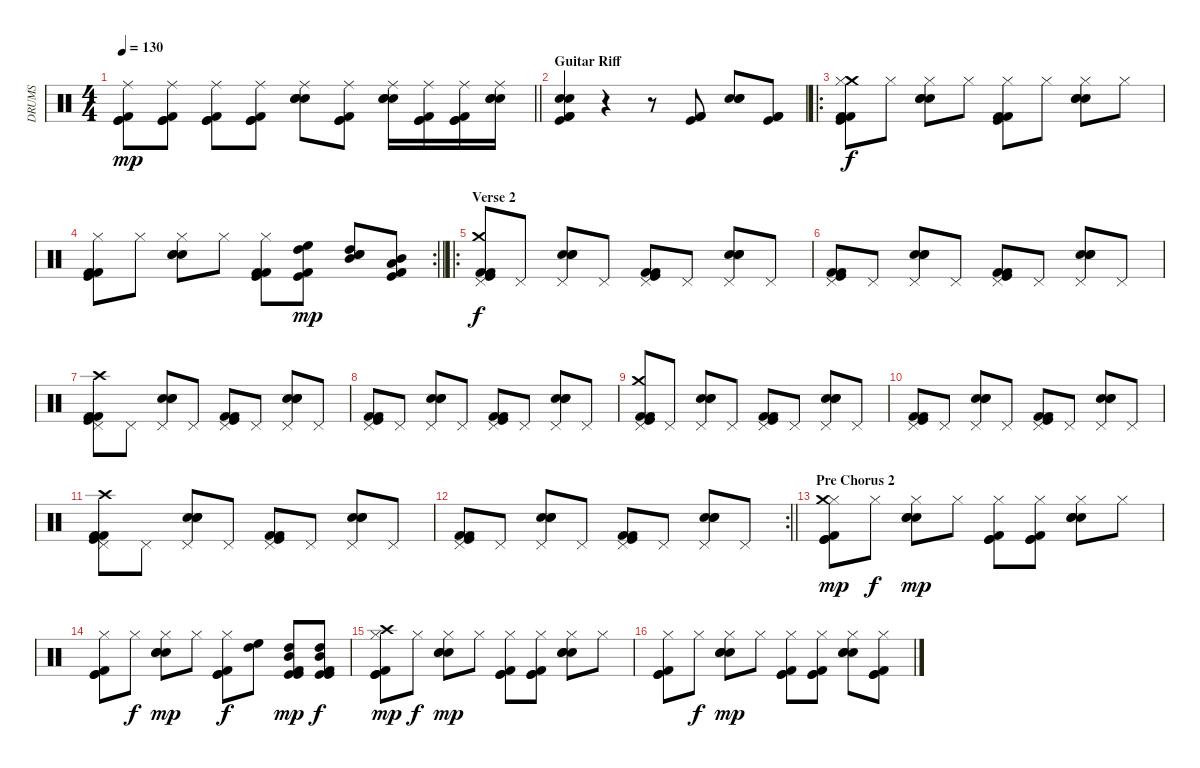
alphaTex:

\track ("DRUMS" "DRUMS") {instrument percussion}
\staff {score}
\articulation defaults
\ts (4 4)
\tempo 130
\clef neutral
\barLineRight lightlight
\ks c
("Ride (middle)" "Kick (hit) 2" "Kick (hit)" "Kick (hit)").8{dy mp} ("Ride (middle)" "Kick (hit) 2" "Kick (hit)" "Kick (hit)").8 ("Ride (middle)" "Kick (hit) 2" "Kick (hit)" "Kick (hit)").8 ("Ride (middle)" "Kick (hit) 2" "Kick (hit)" "Kick (hit)").8 ("Ride (middle)" "Electric Snare (hit)" "Snare (hit) 2" "Snare (hit) 2").8 ("Ride (middle)" "Kick (hit) 2" "Kick (hit)" "Kick (hit)").8 ("Ride (middle)" "Electric Snare (hit)" "Snare (hit) 2" "Snare (hit) 2").16 ("Ride (middle)" "Kick (hit) 2" "Kick (hit)" "Kick (hit)").16 ("Ride (middle)" "Kick (hit) 2" "Kick (hit)" "Kick (hit)").16 ("Ride (middle)" "Electric Snare (hit)" "Snare (hit) 2" "Snare (hit) 2").16 |
\section ("" "Guitar Riff")
("Kick (hit) 2" "Kick (hit)" "Snare (hit) 2" "Electric Snare (hit)" "Kick (hit) 2").4{volume 10} r.4 r.8 ("Kick (hit) 2" "Kick (hit)" "Kick (hit) 2").8 ("Snare (hit) 2" "Electric Snare (hit)" "Snare (hit) 2").8 ("Kick (hit) 2" "Kick (hit)" "Kick (hit) 2").8 |
\ro
("Crash medium (hit)" "Hi-Hat (closed)" "Kick (hit) 2" "Kick (hit)" "Kick (hit) 2").8{dy f volume 8} "Hi-Hat (closed)".8 ("Hi-Hat (closed)" "Snare (hit) 2" "Electric Snare (hit)" "Snare (hit) 2").8 "Hi-Hat (closed)".8 ("Hi-Hat (closed)" "Kick (hit) 2" "Kick (hit)" "Kick (hit) 2").8 "Hi-Hat (closed)".8 ("Hi-Hat (closed)" "Snare (hit) 2" "Electric Snare (hit)" "Snare (hit) 2").8 "Hi-Hat (closed)".8 |
\rc 2
\barLineRight lightlight
("Hi-Hat (closed)" "Kick (hit) 2" "Kick (hit)" "Kick (hit) 2").8 "Hi-Hat (closed)".8 ("Hi-Hat (closed)" "Snare (hit) 2" "Electric Snare (hit)" "Snare (hit) 2").8 "Hi-Hat (closed)".8 ("Hi-Hat (closed)" "Kick (hit) 2" "Kick (hit)" "Kick (hit) 2").8 ("Kick (hit) 2" "Kick (hit)" "High Floor Tom (hit)" "High Tom (hit)").8{dy mp volume 10} ("Snare (hit) 2" "Electric Snare (hit)" "High Tom (hit)" "Mid Tom (hit)").8 ("Kick (hit) 2" "Kick (hit)" "Mid Tom (hit)" "Low Tom (hit)").8 |
\ro
\section ("" "Verse 2")
("Crash medium (hit)" "Pedal Hi-Hat (hit)" "Kick (hit) 2" "Kick (hit)" "Kick (hit) 2").8{dy f volume 8} "Pedal Hi-Hat (hit)".8 ("Pedal Hi-Hat (hit)" "Snare (hit) 2" "Electric Snare (hit)" "Snare (hit) 2").8 "Pedal Hi-Hat (hit)".8 ("Pedal Hi-Hat (hit)" "Kick (hit) 2" "Kick (hit)" "Kick (hit) 2").8 "Pedal Hi-Hat (hit)".8 ("Pedal Hi-Hat (hit)" "Snare (hit) 2" "Electric Snare (hit)" "Snare (hit) 2").8 "Pedal Hi-Hat (hit)".8 |
("Pedal Hi-Hat (hit)" "Kick (hit) 2" "Kick (hit)" "Kick (hit) 2").8 "Pedal Hi-Hat (hit)".8 ("Pedal Hi-Hat (hit)" "Snare (hit) 2" "Electric Snare (hit)" "Snare (hit) 2").8 "Pedal Hi-Hat (hit)".8 ("Pedal Hi-Hat (hit)" "Kick (hit) 2" "Kick (hit)" "Kick (hit) 2").8 "Pedal Hi-Hat (hit)".8 ("Pedal Hi-Hat (hit)" "Snare (hit) 2" "Electric Snare (hit)" "Snare (hit) 2").8 "Pedal Hi-Hat (hit)".8 |
("Crash high (hit)" "Pedal Hi-Hat (hit)" "Kick (hit) 2" "Kick (hit)" "Kick (hit) 2").8 "Pedal Hi-Hat (hit)".8 ("Pedal Hi-Hat (hit)" "Snare (hit) 2" "Electric Snare (hit)" "Snare (hit) 2").8 "Pedal Hi-Hat (hit)".8 ("Pedal Hi-Hat (hit)" "Kick (hit) 2" "Kick (hit)" "Kick (hit) 2").8 "Pedal Hi-Hat (hit)".8 ("Pedal Hi-Hat (hit)" "Snare (hit) 2" "Electric Snare (hit)" "Snare (hit) 2").8 "Pedal Hi-Hat (hit)".8 |
("Pedal Hi-Hat (hit)" "Kick (hit) 2" "Kick (hit)" "Kick (hit) 2").8 "Pedal Hi-Hat (hit)".8 ("Pedal Hi-Hat (hit)" "Snare (hit) 2" "Electric Snare (hit)" "Snare (hit) 2").8 "Pedal Hi-Hat (hit)".8 ("Pedal Hi-Hat (hit)" "Kick (hit) 2" "Kick (hit)" "Kick (hit) 2").8 "Pedal Hi-Hat (hit)".8 ("Pedal Hi-Hat (hit)" "Snare (hit) 2" "Electric Snare (hit)" "Snare (hit) 2").8 "Pedal Hi-Hat (hit)".8 |
("Crash medium (hit)" "Pedal Hi-Hat (hit)" "Kick (hit) 2" "Kick (hit)" "Kick (hit) 2").8 "Pedal Hi-Hat (hit)".8 ("Pedal Hi-Hat (hit)" "Snare (hit) 2" "Electric Snare (hit)" "Snare (hit) 2").8 "Pedal Hi-Hat (hit)".8 ("Pedal Hi-Hat (hit)" "Kick (hit) 2" "Kick (hit)" "Kick (hit) 2").8 "Pedal Hi-Hat (hit)".8 ("Pedal Hi-Hat (hit)" "Snare (hit) 2" "Electric Snare (hit)" "Snare (hit) 2").8 "Pedal Hi-Hat (hit)".8 |
("Pedal Hi-Hat (hit)" "Kick (hit) 2" "Kick (hit)" "Kick (hit) 2").8 "Pedal Hi-Hat (hit)".8 ("Pedal Hi-Hat (hit)" "Snare (hit) 2" "Electric Snare (hit)" "Snare (hit) 2").8 "Pedal Hi-Hat (hit)".8 ("Pedal Hi-Hat (hit)" "Kick (hit) 2" "Kick (hit)" "Kick (hit) 2").8 "Pedal Hi-Hat (hit)".8 ("Pedal Hi-Hat (hit)" "Snare (hit) 2" "Electric Snare (hit)" "Snare (hit) 2").8 "Pedal Hi-Hat (hit)".8 |
("Crash high (hit)" "Pedal Hi-Hat (hit)" "Kick (hit) 2" "Kick (hit)" "Kick (hit) 2").8 "Pedal Hi-Hat (hit)".8 ("Pedal Hi-Hat (hit)" "Snare (hit) 2" "Electric Snare (hit)" "Snare (hit) 2").8 "Pedal Hi-Hat (hit)".8 ("Pedal Hi-Hat (hit)" "Kick (hit) 2" "Kick (hit)" "Kick (hit) 2").8 "Pedal Hi-Hat (hit)".8 ("Pedal Hi-Hat (hit)" "Snare (hit) 2" "Electric Snare (hit)" "Snare (hit) 2").8 "Pedal Hi-Hat (hit)".8 |
\rc 2
\barLineRight lightlight
("Pedal Hi-Hat (hit)" "Kick (hit) 2" "Kick (hit)" "Kick (hit) 2").8 "Pedal Hi-Hat (hit)".8 ("Pedal Hi-Hat (hit)" "Snare (hit) 2" "Electric Snare (hit)" "Snare (hit) 2").8 "Pedal Hi-Hat (hit)".8 ("Pedal Hi-Hat (hit)" "Kick (hit) 2" "Kick (hit)" "Kick (hit) 2").8 "Pedal Hi-Hat (hit)".8 ("Pedal Hi-Hat (hit)" "Snare (hit) 2" "Electric Snare (hit)" "Snare (hit) 2").8 "Pedal Hi-Hat (hit)".8 |
\section ("" "Pre Chorus 2")
("Hi-Hat (closed)" "Kick (hit) 2" "Kick (hit)" "Kick (hit)" "Crash medium (hit)").8{dy mp} "Hi-Hat (closed)".8{dy f} ("Hi-Hat (closed)" "Electric Snare (hit)" "Snare (hit) 2" "Snare (hit) 2").8{dy mp} "Hi-Hat (closed)".8 ("Hi-Hat (closed)" "Kick (hit) 2" "Kick (hit)" "Kick (hit)").8 ("Hi-Hat (closed)" "Kick (hit) 2" "Kick (hit)" "Kick (hit)").8 ("Hi-Hat (closed)" "Electric Snare (hit)" "Snare (hit) 2" "Snare (hit) 2").8 "Hi-Hat (closed)".8 |
("Hi-Hat (closed)" "Kick (hit) 2" "Kick (hit)" "Kick (hit)").8 "Hi-Hat (closed)".8{dy f} ("Hi-Hat (closed)" "Electric Snare (hit)" "Snare (hit) 2" "Snare (hit) 2").8{dy mp} "Hi-Hat (closed)".8 ("Hi-Hat (closed)" "Kick (hit) 2" "Kick (hit)" "Kick (hit)").8{dy f} ("High Floor Tom (hit)" "High Tom (hit)").8 ("Kick (hit) 2" "Kick (hit)" "Kick (hit)" "High Tom (hit)" "Mid Tom (hit)").8{dy mp} ("Kick (hit) 2" "Kick (hit)" "Kick (hit)" "High Tom (hit)" "Mid Tom (hit)").8{dy f} |
("Hi-Hat (closed)" "Kick (hit) 2" "Kick (hit)" "Kick (hit)" "Crash high (hit)").8{dy mp} "Hi-Hat (closed)".8{dy f} ("Hi-Hat (closed)" "Electric Snare (hit)" "Snare (hit) 2" "Snare (hit) 2").8{dy mp} "Hi-Hat (closed)".8 ("Hi-Hat (closed)" "Kick (hit) 2" "Kick (hit)" "Kick (hit)").8 ("Hi-Hat (closed)" "Kick (hit) 2" "Kick (hit)" "Kick (hit)").8 ("Hi-Hat (closed)" "Electric Snare (hit)" "Snare (hit) 2" "Snare (hit) 2").8 "Hi-Hat (closed)".8 |
("Hi-Hat (closed)" "Kick (hit) 2" "Kick (hit)" "Kick (hit)").8 "Hi-Hat (closed)".8{dy f} ("Hi-Hat (closed)" "Electric Snare (hit)" "Snare (hit) 2" "Snare (hit) 2").8{dy mp} "Hi-Hat (closed)".8 ("Hi-Hat (closed)" "Kick (hit) 2" "Kick (hit)" "Kick (hit)").8 ("Hi-Hat (closed)" "Kick (hit) 2" "Kick (hit)" "Kick (hit)").8 ("Hi-Hat (closed)" "Electric Snare (hit)" "Snare (hit) 2" "Snare (hit) 2").8 ("Hi-Hat (closed)" "Kick (hit) 2" "Kick (hit)" "Kick (hit)").8
